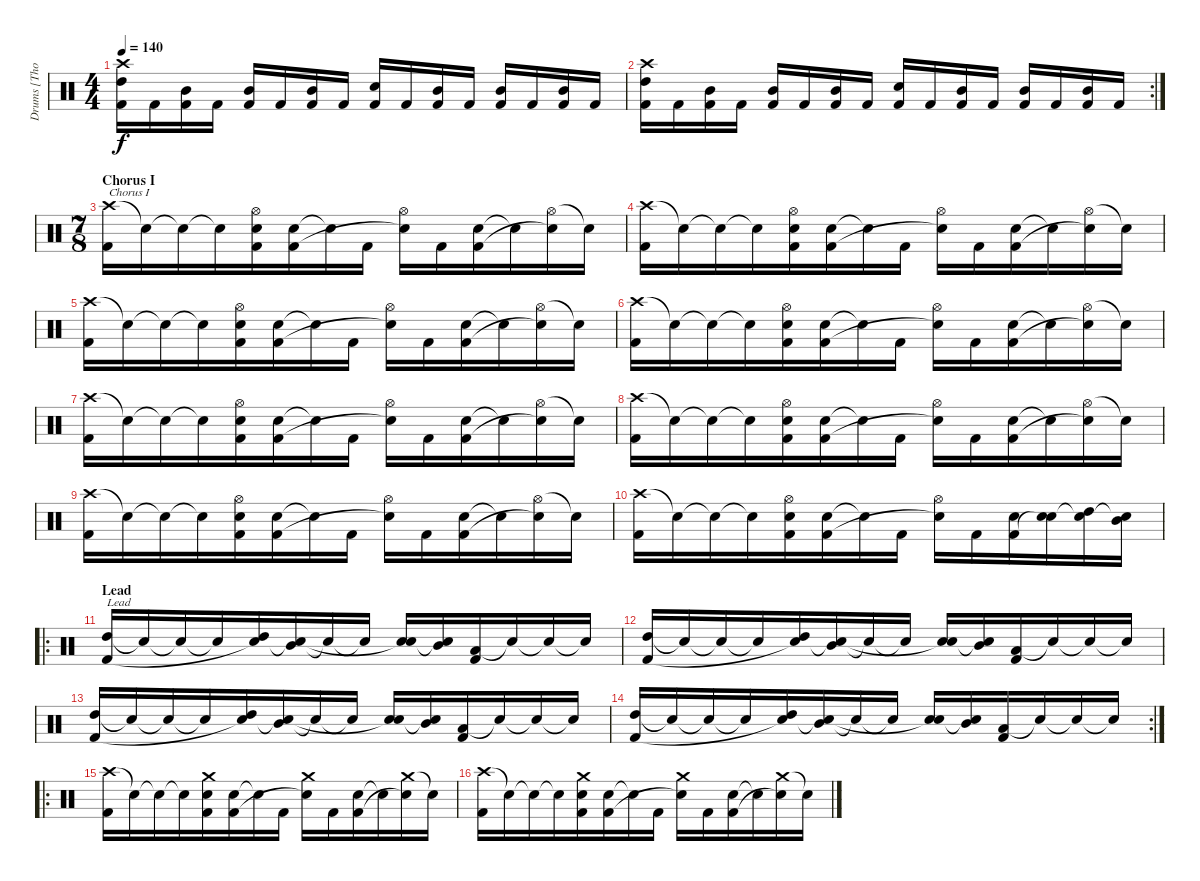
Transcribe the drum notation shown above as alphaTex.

\track ("Drums [Thomas Haake]" "Drums [Tho") {instrument percussion}
\staff {score}
\articulation defaults
\ts (4 4)
\tempo 140
\clef neutral
\ks c
("Crash high (hit)" "High Tom (hit)" "Kick (hit) 2").16{dy f} "Kick (hit) 2".16 ("Mid Tom (hit)" "Kick (hit) 2").16 "Kick (hit) 2".16 ("Mid Tom (hit)" "Kick (hit) 2").16 "Kick (hit) 2".16 ("Mid Tom (hit)" "Kick (hit) 2").16 "Kick (hit) 2".16 ("Electric Snare (hit)" "Kick (hit) 2").16 "Kick (hit) 2".16 ("Mid Tom (hit)" "Kick (hit) 2").16 "Kick (hit) 2".16 ("Mid Tom (hit)" "Kick (hit) 2").16 "Kick (hit) 2".16 ("Mid Tom (hit)" "Kick (hit) 2").16 "Kick (hit) 2".16 |
\rc 2
("Crash high (hit)" "High Tom (hit)" "Kick (hit) 2").16 "Kick (hit) 2".16 ("Mid Tom (hit)" "Kick (hit) 2").16 "Kick (hit) 2".16 ("Mid Tom (hit)" "Kick (hit) 2").16 "Kick (hit) 2".16 ("Mid Tom (hit)" "Kick (hit) 2").16 "Kick (hit) 2".16 ("Electric Snare (hit)" "Kick (hit) 2").16 "Kick (hit) 2".16 ("Mid Tom (hit)" "Kick (hit) 2").16 "Kick (hit) 2".16 ("Mid Tom (hit)" "Kick (hit) 2").16 "Kick (hit) 2".16 ("Mid Tom (hit)" "Kick (hit) 2").16 "Kick (hit) 2".16 |
\ts (7 8)
\section ("" "Chorus I")
("Crash high (hit)" "Kick (hit) 2").16{txt "Chorus I"} "Snare (hit)"{t}.16 "Snare (hit)"{t}.16 "Snare (hit)"{t}.16 ("Hi-Hat (open)" "Electric Snare (hit)" "Kick (hit) 2").16 ("Electric Snare (hit)" "Kick (hit) 2").16 "Snare (hit)"{t}.16 "Kick (hit) 2".16 ("Hi-Hat (open)" "Snare (hit)"{t}).16 "Kick (hit) 2".16 ("Electric Snare (hit)" "Kick (hit) 2").16 "Snare (hit)"{t}.16 ("Hi-Hat (open)" "Snare (hit)"{t}).16 "Snare (hit)"{t}.16 |
("Crash high (hit)" "Kick (hit) 2").16 "Snare (hit)"{t}.16 "Snare (hit)"{t}.16 "Snare (hit)"{t}.16 ("Hi-Hat (open)" "Electric Snare (hit)" "Kick (hit) 2").16 ("Electric Snare (hit)" "Kick (hit) 2").16 "Snare (hit)"{t}.16 "Kick (hit) 2".16 ("Hi-Hat (open)" "Snare (hit)"{t}).16 "Kick (hit) 2".16 ("Electric Snare (hit)" "Kick (hit) 2").16 "Snare (hit)"{t}.16 ("Hi-Hat (open)" "Snare (hit)"{t}).16 "Snare (hit)"{t}.16 |
("Crash high (hit)" "Kick (hit) 2").16 "Snare (hit)"{t}.16 "Snare (hit)"{t}.16 "Snare (hit)"{t}.16 ("Hi-Hat (open)" "Electric Snare (hit)" "Kick (hit) 2").16 ("Electric Snare (hit)" "Kick (hit) 2").16 "Snare (hit)"{t}.16 "Kick (hit) 2".16 ("Hi-Hat (open)" "Snare (hit)"{t}).16 "Kick (hit) 2".16 ("Electric Snare (hit)" "Kick (hit) 2").16 "Snare (hit)"{t}.16 ("Hi-Hat (open)" "Snare (hit)"{t}).16 "Snare (hit)"{t}.16 |
("Crash high (hit)" "Kick (hit) 2").16 "Snare (hit)"{t}.16 "Snare (hit)"{t}.16 "Snare (hit)"{t}.16 ("Hi-Hat (open)" "Electric Snare (hit)" "Kick (hit) 2").16 ("Electric Snare (hit)" "Kick (hit) 2").16 "Snare (hit)"{t}.16 "Kick (hit) 2".16 ("Hi-Hat (open)" "Snare (hit)"{t}).16 "Kick (hit) 2".16 ("Electric Snare (hit)" "Kick (hit) 2").16 "Snare (hit)"{t}.16 ("Hi-Hat (open)" "Snare (hit)"{t}).16 "Snare (hit)"{t}.16 |
("Crash high (hit)" "Kick (hit) 2").16 "Snare (hit)"{t}.16 "Snare (hit)"{t}.16 "Snare (hit)"{t}.16 ("Hi-Hat (open)" "Electric Snare (hit)" "Kick (hit) 2").16 ("Electric Snare (hit)" "Kick (hit) 2").16 "Snare (hit)"{t}.16 "Kick (hit) 2".16 ("Hi-Hat (open)" "Snare (hit)"{t}).16 "Kick (hit) 2".16 ("Electric Snare (hit)" "Kick (hit) 2").16 "Snare (hit)"{t}.16 ("Hi-Hat (open)" "Snare (hit)"{t}).16 "Snare (hit)"{t}.16 |
("Crash high (hit)" "Kick (hit) 2").16 "Snare (hit)"{t}.16 "Snare (hit)"{t}.16 "Snare (hit)"{t}.16 ("Hi-Hat (open)" "Electric Snare (hit)" "Kick (hit) 2").16 ("Electric Snare (hit)" "Kick (hit) 2").16 "Snare (hit)"{t}.16 "Kick (hit) 2".16 ("Hi-Hat (open)" "Snare (hit)"{t}).16 "Kick (hit) 2".16 ("Electric Snare (hit)" "Kick (hit) 2").16 "Snare (hit)"{t}.16 ("Hi-Hat (open)" "Snare (hit)"{t}).16 "Snare (hit)"{t}.16 |
("Crash high (hit)" "Kick (hit) 2").16 "Snare (hit)"{t}.16 "Snare (hit)"{t}.16 "Snare (hit)"{t}.16 ("Hi-Hat (open)" "Electric Snare (hit)" "Kick (hit) 2").16 ("Electric Snare (hit)" "Kick (hit) 2").16 "Snare (hit)"{t}.16 "Kick (hit) 2".16 ("Hi-Hat (open)" "Snare (hit)"{t}).16 "Kick (hit) 2".16 ("Electric Snare (hit)" "Kick (hit) 2").16 "Snare (hit)"{t}.16 ("Hi-Hat (open)" "Snare (hit)"{t}).16 "Snare (hit)"{t}.16 |
("Crash high (hit)" "Kick (hit) 2").16 "Snare (hit)"{t}.16 "Snare (hit)"{t}.16 "Snare (hit)"{t}.16 ("Hi-Hat (open)" "Electric Snare (hit)" "Kick (hit) 2").16 ("Electric Snare (hit)" "Kick (hit) 2").16 "Snare (hit)"{t}.16 "Kick (hit) 2".16 ("Hi-Hat (open)" "Snare (hit)"{t}).16 "Kick (hit) 2".16 ("Electric Snare (hit)" "Kick (hit) 2").16 ("Electric Snare (hit)" "Snare (hit)"{t}).16 ("High Tom (hit)" "Snare (hit)"{t}).16 ("Mid Tom (hit)" "Snare (hit)"{t}).16 |
\ro
\section ("" "Lead")
("High Tom (hit)" "Kick (hit) 2").16{txt "Lead"} "Snare (hit)"{t}.16 "Snare (hit)"{t}.16 "Snare (hit)"{t}.16 ("High Tom (hit)" "Snare (hit)"{t}).16 ("Mid Tom (hit)" "Snare (hit)"{t}).16 "Snare (hit)"{t}.16 "Snare (hit)"{t}.16 ("Electric Snare (hit)" "Snare (hit)"{t}).16 ("Mid Tom (hit)" "Snare (hit)"{t}).16 ("Low Tom (hit)" "Kick (hit) 2").16 "Snare (hit)"{t}.16 "Snare (hit)"{t}.16 "Snare (hit)"{t}.16 |
("High Tom (hit)" "Kick (hit) 2").16 "Snare (hit)"{t}.16 "Snare (hit)"{t}.16 "Snare (hit)"{t}.16 ("High Tom (hit)" "Snare (hit)"{t}).16 ("Mid Tom (hit)" "Snare (hit)"{t}).16 "Snare (hit)"{t}.16 "Snare (hit)"{t}.16 ("Electric Snare (hit)" "Snare (hit)"{t}).16 ("Mid Tom (hit)" "Snare (hit)"{t}).16 ("Low Tom (hit)" "Kick (hit) 2").16 "Snare (hit)"{t}.16 "Snare (hit)"{t}.16 "Snare (hit)"{t}.16 |
("High Tom (hit)" "Kick (hit) 2").16 "Snare (hit)"{t}.16 "Snare (hit)"{t}.16 "Snare (hit)"{t}.16 ("High Tom (hit)" "Snare (hit)"{t}).16 ("Mid Tom (hit)" "Snare (hit)"{t}).16 "Snare (hit)"{t}.16 "Snare (hit)"{t}.16 ("Electric Snare (hit)" "Snare (hit)"{t}).16 ("Mid Tom (hit)" "Snare (hit)"{t}).16 ("Low Tom (hit)" "Kick (hit) 2").16 "Snare (hit)"{t}.16 "Snare (hit)"{t}.16 "Snare (hit)"{t}.16 |
\rc 2
("High Tom (hit)" "Kick (hit) 2").16 "Snare (hit)"{t}.16 "Snare (hit)"{t}.16 "Snare (hit)"{t}.16 ("High Tom (hit)" "Snare (hit)"{t}).16 ("Mid Tom (hit)" "Snare (hit)"{t}).16 "Snare (hit)"{t}.16 "Snare (hit)"{t}.16 ("Electric Snare (hit)" "Snare (hit)"{t}).16 ("Mid Tom (hit)" "Snare (hit)"{t}).16 ("Low Tom (hit)" "Kick (hit) 2").16 "Snare (hit)"{t}.16 "Snare (hit)"{t}.16 "Snare (hit)"{t}.16 |
\ro
("Crash high (hit)" "Kick (hit) 2").16 "Snare (hit)"{t}.16 "Snare (hit)"{t}.16 "Snare (hit)"{t}.16 ("Crash medium (hit)" "Electric Snare (hit)" "Kick (hit) 2").16 ("Electric Snare (hit)" "Kick (hit) 2").16 "Snare (hit)"{t}.16 "Kick (hit) 2".16 ("Crash medium (hit)" "Snare (hit)"{t}).16 "Kick (hit) 2".16 ("Electric Snare (hit)" "Kick (hit) 2").16 "Snare (hit)"{t}.16 ("Crash medium (hit)" "Snare (hit)"{t}).16 "Snare (hit)"{t}.16 |
("Crash high (hit)" "Kick (hit) 2").16 "Snare (hit)"{t}.16 "Snare (hit)"{t}.16 "Snare (hit)"{t}.16 ("Crash medium (hit)" "Electric Snare (hit)" "Kick (hit) 2").16 ("Electric Snare (hit)" "Kick (hit) 2").16 "Snare (hit)"{t}.16 "Kick (hit) 2".16 ("Crash medium (hit)" "Snare (hit)"{t}).16 "Kick (hit) 2".16 ("Electric Snare (hit)" "Kick (hit) 2").16 "Snare (hit)"{t}.16 ("Crash medium (hit)" "Snare (hit)"{t}).16 "Snare (hit)"{t}.16
